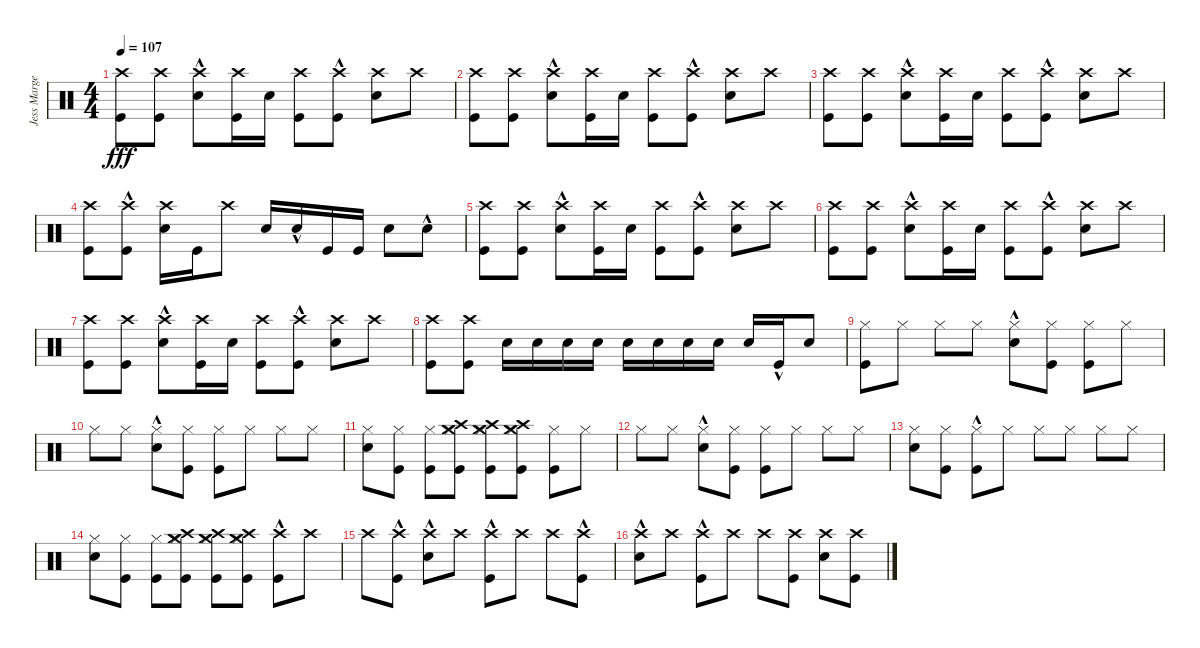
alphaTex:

\track ("Jess Margera (drums)" "Jess Marge") {instrument percussion}
\staff {score}
\articulation defaults
\ts (4 4)
\tempo 107
\clef neutral
\ks c
("Kick (hit)" "Crash high (hit)").8{dy fff} ("Kick (hit)" "Crash high (hit)").8 ("Snare (hit) 2"{hac} "Crash high (hit)").8 ("Kick (hit)" "Crash high (hit)").16 "Snare (hit) 2".16 ("Kick (hit)" "Crash high (hit)").8 ("Kick (hit)"{hac} "Crash high (hit)").8 ("Snare (hit) 2" "Crash high (hit)").8 "Crash high (hit)".8 |
("Kick (hit)" "Crash high (hit)").8 ("Kick (hit)" "Crash high (hit)").8 ("Snare (hit) 2"{hac} "Crash high (hit)").8 ("Kick (hit)" "Crash high (hit)").16 "Snare (hit) 2".16 ("Kick (hit)" "Crash high (hit)").8 ("Kick (hit)"{hac} "Crash high (hit)").8 ("Snare (hit) 2" "Crash high (hit)").8 "Crash high (hit)".8 |
("Kick (hit)" "Crash high (hit)").8 ("Kick (hit)" "Crash high (hit)").8 ("Snare (hit) 2"{hac} "Crash high (hit)").8 ("Kick (hit)" "Crash high (hit)").16 "Snare (hit) 2".16 ("Kick (hit)" "Crash high (hit)").8 ("Kick (hit)"{hac} "Crash high (hit)").8 ("Snare (hit) 2" "Crash high (hit)").8 "Crash high (hit)".8 |
("Kick (hit)" "Crash high (hit)").8 ("Kick (hit)"{hac} "Crash high (hit)").8 ("Snare (hit) 2" "Crash high (hit)").16 "Kick (hit)".16 "Crash high (hit)".8 "Snare (hit) 2".16 "Snare (hit) 2"{hac}.16 "Kick (hit)".16 "Kick (hit)".16 "Snare (hit) 2".8 "Snare (hit) 2"{hac}.8 |
("Kick (hit)" "Crash high (hit)").8 ("Kick (hit)" "Crash high (hit)").8 ("Snare (hit) 2"{hac} "Crash high (hit)").8 ("Kick (hit)" "Crash high (hit)").16 "Snare (hit) 2".16 ("Kick (hit)" "Crash high (hit)").8 ("Kick (hit)"{hac} "Crash high (hit)").8 ("Snare (hit) 2" "Crash high (hit)").8 "Crash high (hit)".8 |
("Kick (hit)" "Crash high (hit)").8 ("Kick (hit)" "Crash high (hit)").8 ("Snare (hit) 2"{hac} "Crash high (hit)").8 ("Kick (hit)" "Crash high (hit)").16 "Snare (hit) 2".16 ("Kick (hit)" "Crash high (hit)").8 ("Kick (hit)"{hac} "Crash high (hit)").8 ("Snare (hit) 2" "Crash high (hit)").8 "Crash high (hit)".8 |
("Kick (hit)" "Crash high (hit)").8 ("Kick (hit)" "Crash high (hit)").8 ("Snare (hit) 2"{hac} "Crash high (hit)").8 ("Kick (hit)" "Crash high (hit)").16 "Snare (hit) 2".16 ("Kick (hit)" "Crash high (hit)").8 ("Kick (hit)"{hac} "Crash high (hit)").8 ("Snare (hit) 2" "Crash high (hit)").8 "Crash high (hit)".8 |
("Kick (hit)" "Crash high (hit)").8 ("Kick (hit)" "Crash high (hit)").8 "Snare (hit) 2".16 "Snare (hit) 2".16 "Snare (hit) 2".16 "Snare (hit) 2".16 "Snare (hit) 2".16 "Snare (hit) 2".16 "Snare (hit) 2".16 "Snare (hit) 2".16 "Snare (hit) 2".16 "Kick (hit)"{hac}.16 "Snare (hit) 2".8 |
("Kick (hit)" "Hi-Hat (closed)").8 "Hi-Hat (closed)".8 "Hi-Hat (closed)".8 "Hi-Hat (closed)".8 ("Snare (hit) 2"{hac} "Hi-Hat (closed)").8 ("Kick (hit)" "Hi-Hat (closed)").8 ("Kick (hit)" "Hi-Hat (closed)").8 "Hi-Hat (closed)".8 |
"Hi-Hat (closed)".8 "Hi-Hat (closed)".8 ("Snare (hit) 2"{hac} "Hi-Hat (closed)").8 ("Kick (hit)" "Hi-Hat (closed)").8 ("Kick (hit)" "Hi-Hat (closed)").8 "Hi-Hat (closed)".8 "Hi-Hat (closed)".8 "Hi-Hat (closed)".8 |
("Snare (hit) 2" "Hi-Hat (closed)").8 ("Kick (hit)" "Hi-Hat (closed)").8 ("Kick (hit)" "Hi-Hat (closed)").8 ("Kick (hit)" "Hi-Hat (closed)" "Crash medium (hit)" "Crash high (hit)").8 ("Kick (hit)" "Hi-Hat (closed)" "Crash medium (hit)" "Crash high (hit)").8 ("Kick (hit)" "Hi-Hat (closed)" "Crash medium (hit)" "Crash high (hit)").8 ("Kick (hit)" "Hi-Hat (closed)").8 "Hi-Hat (closed)".8 |
"Hi-Hat (closed)".8 "Hi-Hat (closed)".8 ("Snare (hit) 2"{hac} "Hi-Hat (closed)").8 ("Kick (hit)" "Hi-Hat (closed)").8 ("Kick (hit)" "Hi-Hat (closed)").8 "Hi-Hat (closed)".8 "Hi-Hat (closed)".8 "Hi-Hat (closed)".8 |
("Snare (hit) 2" "Hi-Hat (closed)").8 ("Kick (hit)" "Hi-Hat (closed)").8 ("Kick (hit)"{hac} "Hi-Hat (closed)").8 "Hi-Hat (closed)".8 "Hi-Hat (closed)".8 "Hi-Hat (closed)".8 "Hi-Hat (closed)".8 "Hi-Hat (closed)".8 |
("Snare (hit) 2" "Hi-Hat (closed)").8 ("Kick (hit)" "Hi-Hat (closed)").8 ("Kick (hit)" "Hi-Hat (closed)").8 ("Kick (hit)" "Hi-Hat (closed)" "Crash medium (hit)" "Crash high (hit)").8 ("Kick (hit)" "Hi-Hat (closed)" "Crash medium (hit)" "Crash high (hit)").8 ("Kick (hit)" "Hi-Hat (closed)" "Crash medium (hit)" "Crash high (hit)").8 ("Kick (hit)"{hac} "Crash high (hit)").8 "Crash high (hit)".8 |
"Crash high (hit)".8 ("Kick (hit)"{hac} "Crash high (hit)").8 ("Snare (hit) 2"{hac} "Crash high (hit)").8 "Crash high (hit)".8 ("Kick (hit)"{hac} "Crash high (hit)").8 "Crash high (hit)".8 "Crash high (hit)".8 ("Kick (hit)"{hac} "Crash high (hit)").8 |
("Snare (hit) 2"{hac} "Crash high (hit)").8 "Crash high (hit)".8 ("Kick (hit)"{hac} "Crash high (hit)").8 "Crash high (hit)".8 "Crash high (hit)".8 ("Kick (hit)" "Crash high (hit)").8 ("Snare (hit) 2" "Crash high (hit)").8 ("Kick (hit)" "Crash high (hit)").8
